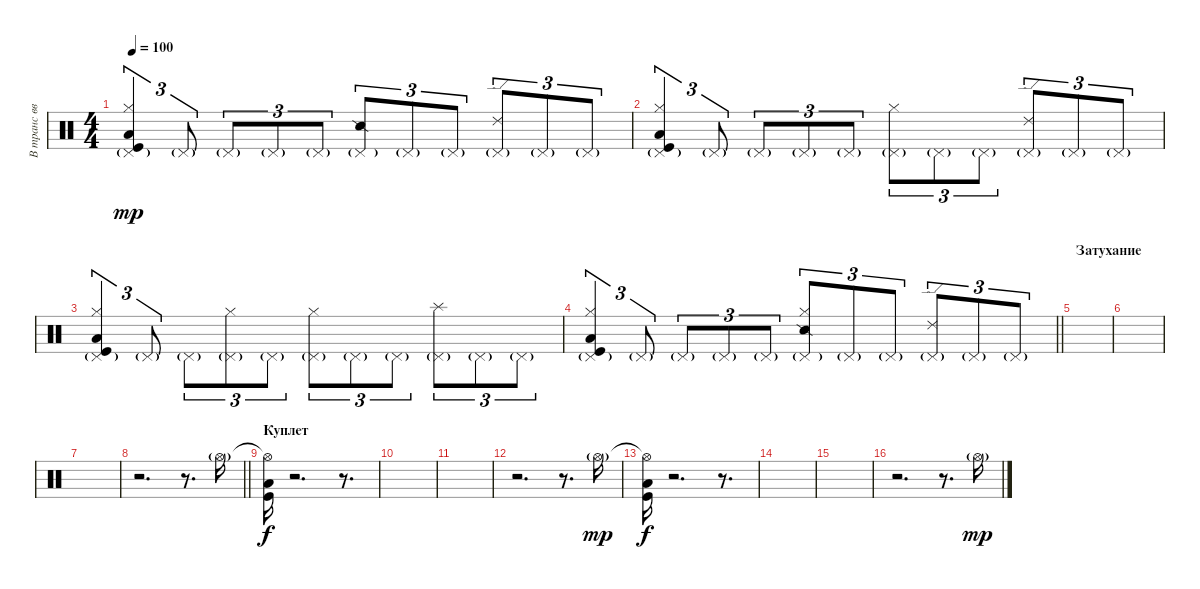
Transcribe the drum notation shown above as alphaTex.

\track ("В транс вводящие" "В транс вв") {instrument percussion}
\staff {score}
\articulation defaults
\ts (4 4)
\tempo 100
\clef neutral
\ks c
("Pedal Hi-Hat (hit)"{g} "Hi-Hat (closed)" "Low Tom (hit)" "Kick (hit)").4{tu (3 2) dy mp} "Pedal Hi-Hat (hit)"{g}.8{tu (3 2)} "Pedal Hi-Hat (hit)"{g}.8{tu (3 2)} "Pedal Hi-Hat (hit)"{g}.8{tu (3 2)} "Pedal Hi-Hat (hit)"{g}.8{tu (3 2)} ("Pedal Hi-Hat (hit)"{g} "Snare (side stick) 2").8{tu (3 2)} "Pedal Hi-Hat (hit)"{g}.8{tu (3 2)} "Pedal Hi-Hat (hit)"{g}.8{tu (3 2)} ("Pedal Hi-Hat (hit)"{g} "Ride (edge) 2").8{tu (3 2)} "Pedal Hi-Hat (hit)"{g}.8{tu (3 2)} "Pedal Hi-Hat (hit)"{g}.8{tu (3 2)} |
("Pedal Hi-Hat (hit)"{g} "Hi-Hat (closed)" "Low Tom (hit)" "Kick (hit)").4{tu (3 2)} "Pedal Hi-Hat (hit)"{g}.8{tu (3 2)} "Pedal Hi-Hat (hit)"{g}.8{tu (3 2)} "Pedal Hi-Hat (hit)"{g}.8{tu (3 2)} "Pedal Hi-Hat (hit)"{g}.8{tu (3 2)} ("Pedal Hi-Hat (hit)"{g} "Hi-Hat (closed)").8{tu (3 2)} "Pedal Hi-Hat (hit)"{g}.8{tu (3 2)} "Pedal Hi-Hat (hit)"{g}.8{tu (3 2)} ("Pedal Hi-Hat (hit)"{g} "Ride (edge) 2").8{tu (3 2)} "Pedal Hi-Hat (hit)"{g}.8{tu (3 2)} "Pedal Hi-Hat (hit)"{g}.8{tu (3 2)} |
("Pedal Hi-Hat (hit)"{g} "Hi-Hat (closed)" "Low Tom (hit)" "Kick (hit)").4{tu (3 2)} "Pedal Hi-Hat (hit)"{g}.8{tu (3 2)} "Pedal Hi-Hat (hit)"{g}.8{tu (3 2)} ("Pedal Hi-Hat (hit)"{g} "Hi-Hat (closed)").8{tu (3 2)} "Pedal Hi-Hat (hit)"{g}.8{tu (3 2)} ("Pedal Hi-Hat (hit)"{g} "Hi-Hat (closed)").8{tu (3 2)} "Pedal Hi-Hat (hit)"{g}.8{tu (3 2)} "Pedal Hi-Hat (hit)"{g}.8{tu (3 2)} ("Pedal Hi-Hat (hit)"{g} "Splash (hit)").8{tu (3 2)} "Pedal Hi-Hat (hit)"{g}.8{tu (3 2)} "Pedal Hi-Hat (hit)"{g}.8{tu (3 2)} |
\barLineRight lightlight
("Pedal Hi-Hat (hit)"{g} "Hi-Hat (closed)" "Low Tom (hit)" "Kick (hit)").4{tu (3 2)} "Pedal Hi-Hat (hit)"{g}.8{tu (3 2)} "Pedal Hi-Hat (hit)"{g}.8{tu (3 2)} "Pedal Hi-Hat (hit)"{g}.8{tu (3 2)} "Pedal Hi-Hat (hit)"{g}.8{tu (3 2)} ("Pedal Hi-Hat (hit)"{g} "Snare (side stick) 2" "Hi-Hat (closed)").8{tu (3 2)} "Pedal Hi-Hat (hit)"{g}.8{tu (3 2)} "Pedal Hi-Hat (hit)"{g}.8{tu (3 2)} ("Pedal Hi-Hat (hit)"{g} "Ride (edge) 2").8{tu (3 2)} "Pedal Hi-Hat (hit)"{g}.8{tu (3 2)} "Pedal Hi-Hat (hit)"{g}.8{tu (3 2)} |
\section ("" "Затухание")
|
|
|
\barLineRight lightlight
r.2{d} r.8{d} "Hi-Hat (open)"{g}.16 |
\section ("" "Куплет")
("Hi-Hat (open)"{t} "Low Tom (hit)" "Kick (hit)").16{dy f} r.2{d} r.8{d} |
|
|
r.2{d} r.8{d} "Hi-Hat (open)"{g}.16{dy mp} |
("Hi-Hat (open)"{t} "Low Tom (hit)" "Kick (hit)").16{dy f} r.2{d} r.8{d} |
|
|
r.2{d} r.8{d} "Hi-Hat (open)"{g}.16{dy mp}
